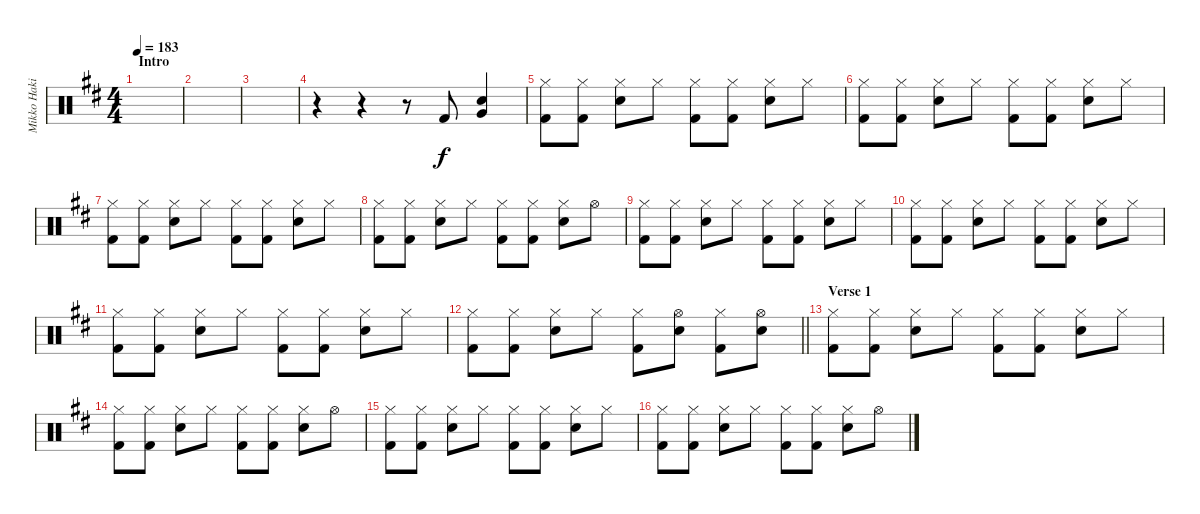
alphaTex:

\track ("Mikko Hakila - drums" "Mikko Haki") {instrument percussion}
\staff {score}
\articulation defaults
\ts (4 4)
\section ("" "Intro")
\tempo 183
\clef neutral
\ks bminor
|
|
|
r.4 r.4 r.8 "Kick (hit) 2".8 ("Electric Snare (hit)" "Very Low Tom (hit)").4 |
("Hi-Hat (closed)" "Kick (hit) 2").8 ("Hi-Hat (closed)" "Kick (hit) 2").8 ("Hi-Hat (closed)" "Electric Snare (hit)").8 "Hi-Hat (closed)".8 ("Hi-Hat (closed)" "Kick (hit) 2").8 ("Hi-Hat (closed)" "Kick (hit) 2").8 ("Hi-Hat (closed)" "Electric Snare (hit)").8 "Hi-Hat (closed)".8 |
("Hi-Hat (closed)" "Kick (hit) 2").8 ("Hi-Hat (closed)" "Kick (hit) 2").8 ("Hi-Hat (closed)" "Electric Snare (hit)").8 "Hi-Hat (closed)".8 ("Hi-Hat (closed)" "Kick (hit) 2").8 ("Hi-Hat (closed)" "Kick (hit) 2").8 ("Hi-Hat (closed)" "Electric Snare (hit)").8 "Hi-Hat (closed)".8 |
("Hi-Hat (closed)" "Kick (hit) 2").8 ("Hi-Hat (closed)" "Kick (hit) 2").8 ("Hi-Hat (closed)" "Electric Snare (hit)").8 "Hi-Hat (closed)".8 ("Hi-Hat (closed)" "Kick (hit) 2").8 ("Hi-Hat (closed)" "Kick (hit) 2").8 ("Hi-Hat (closed)" "Electric Snare (hit)").8 "Hi-Hat (closed)".8 |
("Hi-Hat (closed)" "Kick (hit) 2").8 ("Hi-Hat (closed)" "Kick (hit) 2").8 ("Hi-Hat (closed)" "Electric Snare (hit)").8 "Hi-Hat (closed)".8 ("Hi-Hat (closed)" "Kick (hit) 2").8 ("Hi-Hat (closed)" "Kick (hit) 2").8 ("Hi-Hat (closed)" "Electric Snare (hit)").8 "Hi-Hat (open)".8 |
("Hi-Hat (closed)" "Kick (hit) 2").8 ("Hi-Hat (closed)" "Kick (hit) 2").8 ("Hi-Hat (closed)" "Electric Snare (hit)").8 "Hi-Hat (closed)".8 ("Hi-Hat (closed)" "Kick (hit) 2").8 ("Hi-Hat (closed)" "Kick (hit) 2").8 ("Hi-Hat (closed)" "Electric Snare (hit)").8 "Hi-Hat (closed)".8 |
("Hi-Hat (closed)" "Kick (hit) 2").8 ("Hi-Hat (closed)" "Kick (hit) 2").8 ("Hi-Hat (closed)" "Electric Snare (hit)").8 "Hi-Hat (closed)".8 ("Hi-Hat (closed)" "Kick (hit) 2").8 ("Hi-Hat (closed)" "Kick (hit) 2").8 ("Hi-Hat (closed)" "Electric Snare (hit)").8 "Hi-Hat (closed)".8 |
("Hi-Hat (closed)" "Kick (hit) 2").8 ("Hi-Hat (closed)" "Kick (hit) 2").8 ("Hi-Hat (closed)" "Electric Snare (hit)").8 "Hi-Hat (closed)".8 ("Hi-Hat (closed)" "Kick (hit) 2").8 ("Hi-Hat (closed)" "Kick (hit) 2").8 ("Hi-Hat (closed)" "Electric Snare (hit)").8 "Hi-Hat (closed)".8 |
\barLineRight lightlight
("Hi-Hat (closed)" "Kick (hit) 2").8 ("Hi-Hat (closed)" "Kick (hit) 2").8 ("Hi-Hat (closed)" "Electric Snare (hit)").8 "Hi-Hat (closed)".8 ("Hi-Hat (closed)" "Kick (hit) 2").8 ("Hi-Hat (open)" "Electric Snare (hit)").8 ("Hi-Hat (closed)" "Kick (hit) 2").8 ("Hi-Hat (open)" "Electric Snare (hit)").8 |
\section ("" "Verse 1")
("Hi-Hat (closed)" "Kick (hit) 2").8 ("Hi-Hat (closed)" "Kick (hit) 2").8 ("Hi-Hat (closed)" "Electric Snare (hit)").8 "Hi-Hat (closed)".8 ("Hi-Hat (closed)" "Kick (hit) 2").8 ("Hi-Hat (closed)" "Kick (hit) 2").8 ("Hi-Hat (closed)" "Electric Snare (hit)").8 "Hi-Hat (closed)".8 |
("Hi-Hat (closed)" "Kick (hit) 2").8 ("Hi-Hat (closed)" "Kick (hit) 2").8 ("Hi-Hat (closed)" "Electric Snare (hit)").8 "Hi-Hat (closed)".8 ("Hi-Hat (closed)" "Kick (hit) 2").8 ("Hi-Hat (closed)" "Kick (hit) 2").8 ("Hi-Hat (closed)" "Electric Snare (hit)").8 "Hi-Hat (open)".8 |
("Hi-Hat (closed)" "Kick (hit) 2").8 ("Hi-Hat (closed)" "Kick (hit) 2").8 ("Hi-Hat (closed)" "Electric Snare (hit)").8 "Hi-Hat (closed)".8 ("Hi-Hat (closed)" "Kick (hit) 2").8 ("Hi-Hat (closed)" "Kick (hit) 2").8 ("Hi-Hat (closed)" "Electric Snare (hit)").8 "Hi-Hat (closed)".8 |
("Hi-Hat (closed)" "Kick (hit) 2").8 ("Hi-Hat (closed)" "Kick (hit) 2").8 ("Hi-Hat (closed)" "Electric Snare (hit)").8 "Hi-Hat (closed)".8 ("Hi-Hat (closed)" "Kick (hit) 2").8 ("Hi-Hat (closed)" "Kick (hit) 2").8 ("Hi-Hat (closed)" "Electric Snare (hit)").8 "Hi-Hat (open)".8
